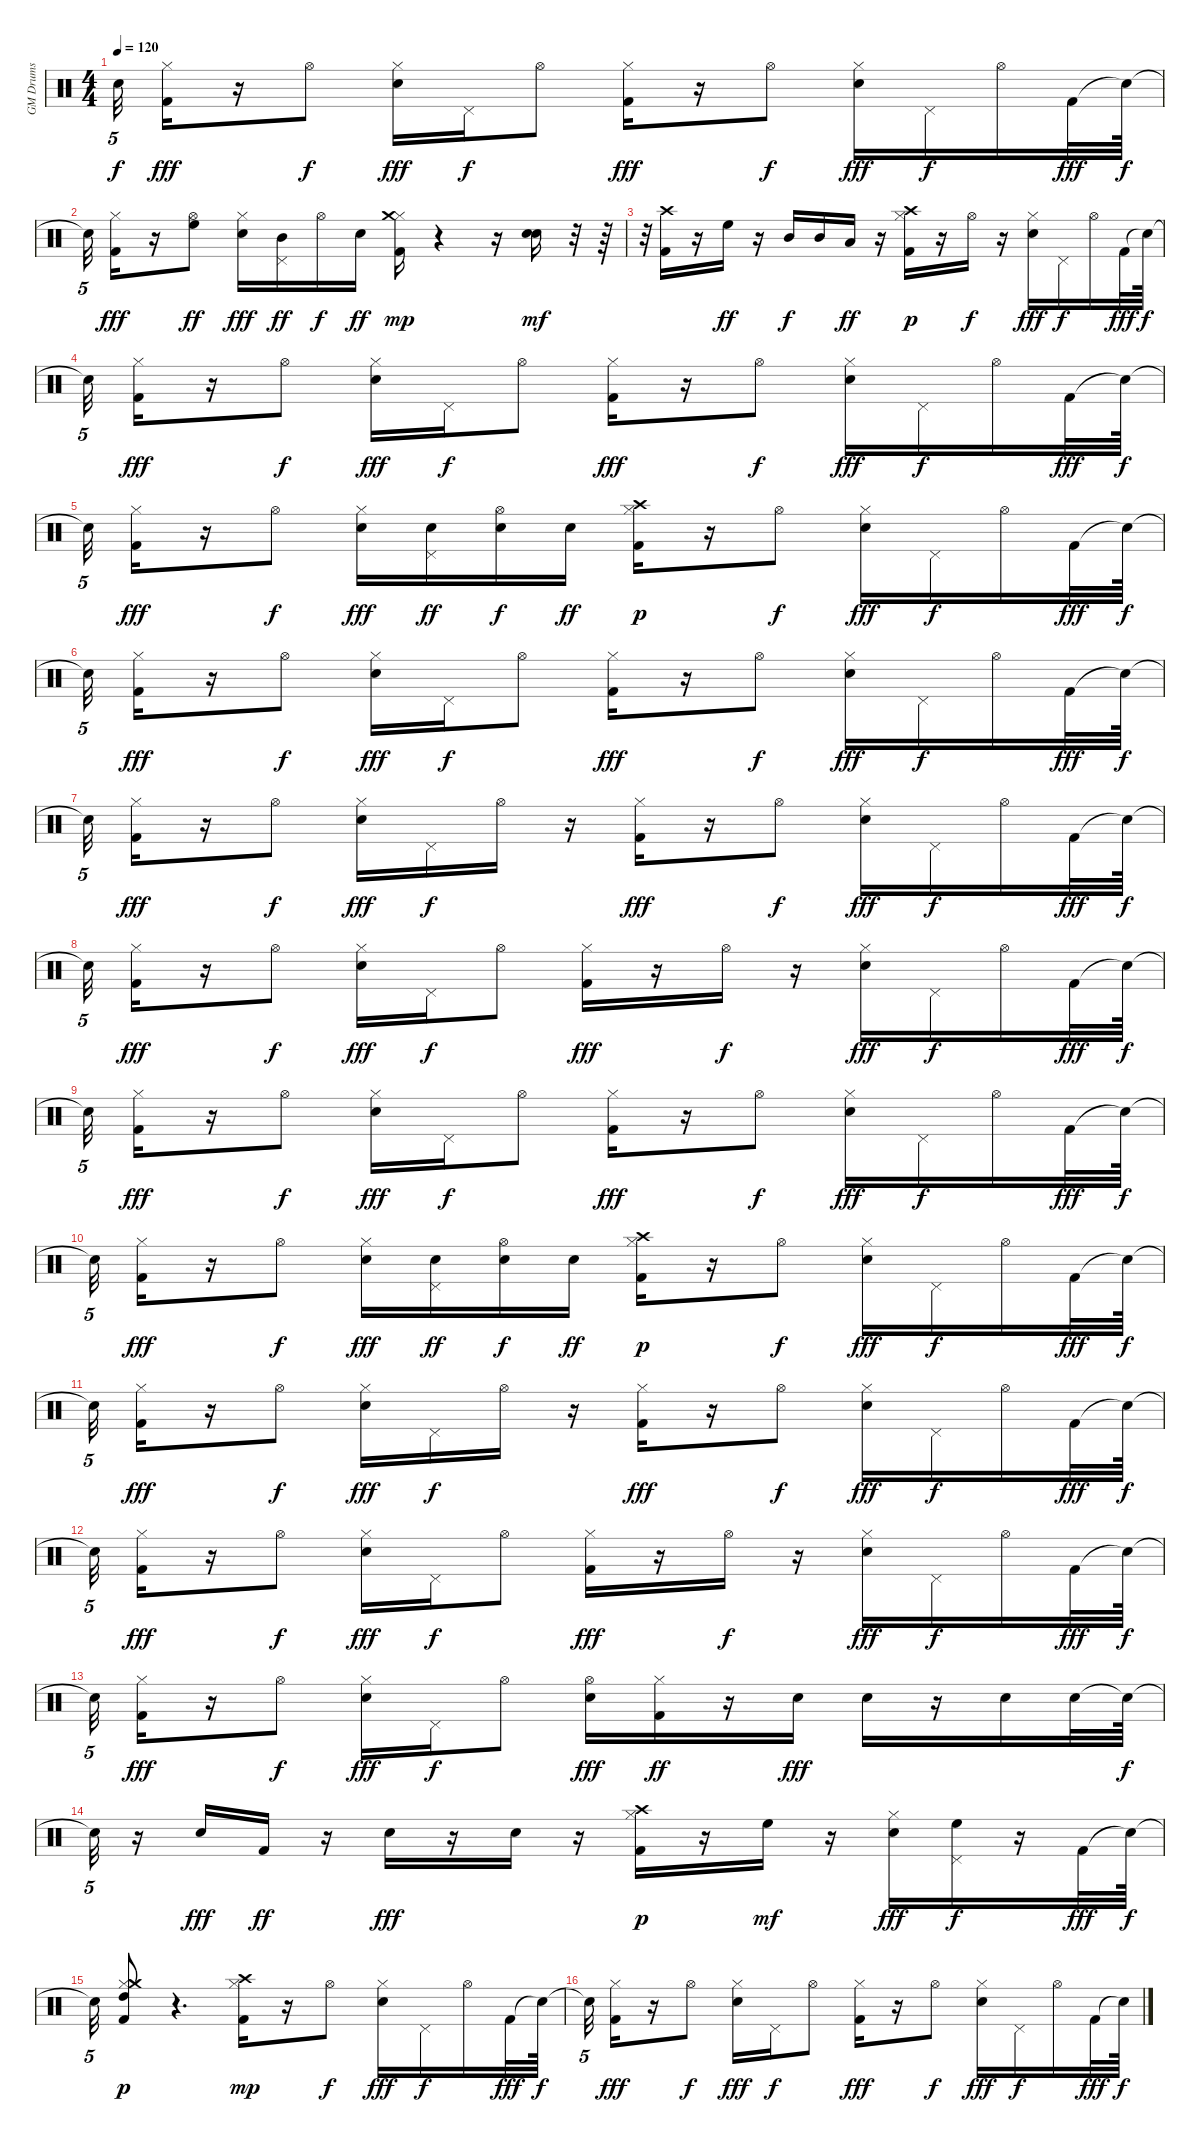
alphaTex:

\track ("GM Drums" "GM Drums") {instrument percussion}
\staff {score}
\articulation defaults
\ts (4 4)
\tempo 120
\clef neutral
\ks c "Snare (hit)"{t}.32{tu (5 4) dy f}
("Kick (hit) 2" "Hi-Hat (closed)").16{dy fff} r.16 "Hi-Hat (open)".8{dy f} ("Electric Snare (hit)" "Hi-Hat (closed)").16{dy fff} "Pedal Hi-Hat (hit)".16{dy f} "Hi-Hat (open)".8 ("Kick (hit) 2" "Hi-Hat (closed)").16{dy fff} r.16 "Hi-Hat (open)".8{dy f} ("Electric Snare (hit)" "Hi-Hat (closed)").16{dy fff} "Pedal Hi-Hat (hit)".16{dy f} "Hi-Hat (open)".16 "Kick (hit) 2".32{dy fff} "Snare (hit)"{t}.64{dy f} |
"Snare (hit)"{t}.32{tu (5 4)} ("Kick (hit) 2" "Hi-Hat (closed)").16{dy fff} r.16 ("Hi-Hat (open)" "High Floor Tom (hit)").8{dy ff} ("Electric Snare (hit)" "Hi-Hat (closed)").16{dy fff} ("Pedal Hi-Hat (hit)" "Mid Tom (hit)").16{dy ff} "Hi-Hat (open)".16{dy f} "Electric Snare (hit)".16{dy ff} ("Kick (hit) 2" "Hi-Hat (closed)" "Crash medium (hit)").16{dy mp} r.4 r.16 ("Electric Snare (hit)" "Electric Snare (hit)").16{dy mf} r.32 r.64 |
r.32{tu (5 4)} ("Kick (hit) 2" "Crash high (hit)").16 r.16 "High Floor Tom (hit)".16{dy ff} r.16 "Mid Tom (hit)".16{dy f} "Mid Tom (hit)".16 "Low Tom (hit)".16{dy ff} r.16 ("Kick (hit) 2" "Hi-Hat (closed)" "Crash high (hit)").16{dy p} r.16 "Hi-Hat (open)".16{dy f} r.16 ("Electric Snare (hit)" "Hi-Hat (closed)").16{dy fff} "Pedal Hi-Hat (hit)".16{dy f} "Hi-Hat (open)".16 "Kick (hit) 2".32{dy fff} "Snare (hit)"{t}.64{dy f} |
"Snare (hit)"{t}.32{tu (5 4)} ("Kick (hit) 2" "Hi-Hat (closed)").16{dy fff} r.16 "Hi-Hat (open)".8{dy f} ("Electric Snare (hit)" "Hi-Hat (closed)").16{dy fff} "Pedal Hi-Hat (hit)".16{dy f} "Hi-Hat (open)".8 ("Kick (hit) 2" "Hi-Hat (closed)").16{dy fff} r.16 "Hi-Hat (open)".8{dy f} ("Electric Snare (hit)" "Hi-Hat (closed)").16{dy fff} "Pedal Hi-Hat (hit)".16{dy f} "Hi-Hat (open)".16 "Kick (hit) 2".32{dy fff} "Snare (hit)"{t}.64{dy f} |
"Snare (hit)"{t}.32{tu (5 4)} ("Kick (hit) 2" "Hi-Hat (closed)").16{dy fff} r.16 "Hi-Hat (open)".8{dy f} ("Electric Snare (hit)" "Hi-Hat (closed)").16{dy fff} ("Electric Snare (hit)" "Pedal Hi-Hat (hit)").16{dy ff} ("Electric Snare (hit)" "Hi-Hat (open)").16{dy f} "Electric Snare (hit)".16{dy ff} ("Kick (hit) 2" "Hi-Hat (closed)" "Crash high (hit)").16{dy p} r.16 "Hi-Hat (open)".8{dy f} ("Electric Snare (hit)" "Hi-Hat (closed)").16{dy fff} "Pedal Hi-Hat (hit)".16{dy f} "Hi-Hat (open)".16 "Kick (hit) 2".32{dy fff} "Snare (hit)"{t}.64{dy f} |
"Snare (hit)"{t}.32{tu (5 4)} ("Kick (hit) 2" "Hi-Hat (closed)").16{dy fff} r.16 "Hi-Hat (open)".8{dy f} ("Electric Snare (hit)" "Hi-Hat (closed)").16{dy fff} "Pedal Hi-Hat (hit)".16{dy f} "Hi-Hat (open)".8 ("Kick (hit) 2" "Hi-Hat (closed)").16{dy fff} r.16 "Hi-Hat (open)".8{dy f} ("Electric Snare (hit)" "Hi-Hat (closed)").16{dy fff} "Pedal Hi-Hat (hit)".16{dy f} "Hi-Hat (open)".16 "Kick (hit) 2".32{dy fff} "Snare (hit)"{t}.64{dy f} |
"Snare (hit)"{t}.32{tu (5 4)} ("Kick (hit) 2" "Hi-Hat (closed)").16{dy fff} r.16 "Hi-Hat (open)".8{dy f} ("Electric Snare (hit)" "Hi-Hat (closed)").16{dy fff} "Pedal Hi-Hat (hit)".16{dy f} "Hi-Hat (open)".16 r.16 ("Kick (hit) 2" "Hi-Hat (closed)").16{dy fff} r.16 "Hi-Hat (open)".8{dy f} ("Electric Snare (hit)" "Hi-Hat (closed)").16{dy fff} "Pedal Hi-Hat (hit)".16{dy f} "Hi-Hat (open)".16 "Kick (hit) 2".32{dy fff} "Snare (hit)"{t}.64{dy f} |
"Snare (hit)"{t}.32{tu (5 4)} ("Kick (hit) 2" "Hi-Hat (closed)").16{dy fff} r.16 "Hi-Hat (open)".8{dy f} ("Electric Snare (hit)" "Hi-Hat (closed)").16{dy fff} "Pedal Hi-Hat (hit)".16{dy f} "Hi-Hat (open)".8 ("Kick (hit) 2" "Hi-Hat (closed)").16{dy fff} r.16 "Hi-Hat (open)".16{dy f} r.16 ("Electric Snare (hit)" "Hi-Hat (closed)").16{dy fff} "Pedal Hi-Hat (hit)".16{dy f} "Hi-Hat (open)".16 "Kick (hit) 2".32{dy fff} "Snare (hit)"{t}.64{dy f} |
"Snare (hit)"{t}.32{tu (5 4)} ("Kick (hit) 2" "Hi-Hat (closed)").16{dy fff} r.16 "Hi-Hat (open)".8{dy f} ("Electric Snare (hit)" "Hi-Hat (closed)").16{dy fff} "Pedal Hi-Hat (hit)".16{dy f} "Hi-Hat (open)".8 ("Kick (hit) 2" "Hi-Hat (closed)").16{dy fff} r.16 "Hi-Hat (open)".8{dy f} ("Electric Snare (hit)" "Hi-Hat (closed)").16{dy fff} "Pedal Hi-Hat (hit)".16{dy f} "Hi-Hat (open)".16 "Kick (hit) 2".32{dy fff} "Snare (hit)"{t}.64{dy f} |
"Snare (hit)"{t}.32{tu (5 4)} ("Kick (hit) 2" "Hi-Hat (closed)").16{dy fff} r.16 "Hi-Hat (open)".8{dy f} ("Electric Snare (hit)" "Hi-Hat (closed)").16{dy fff} ("Electric Snare (hit)" "Pedal Hi-Hat (hit)").16{dy ff} ("Electric Snare (hit)" "Hi-Hat (open)").16{dy f} "Electric Snare (hit)".16{dy ff} ("Kick (hit) 2" "Hi-Hat (closed)" "Crash high (hit)").16{dy p} r.16 "Hi-Hat (open)".8{dy f} ("Electric Snare (hit)" "Hi-Hat (closed)").16{dy fff} "Pedal Hi-Hat (hit)".16{dy f} "Hi-Hat (open)".16 "Kick (hit) 2".32{dy fff} "Snare (hit)"{t}.64{dy f} |
"Snare (hit)"{t}.32{tu (5 4)} ("Kick (hit) 2" "Hi-Hat (closed)").16{dy fff} r.16 "Hi-Hat (open)".8{dy f} ("Electric Snare (hit)" "Hi-Hat (closed)").16{dy fff} "Pedal Hi-Hat (hit)".16{dy f} "Hi-Hat (open)".16 r.16 ("Kick (hit) 2" "Hi-Hat (closed)").16{dy fff} r.16 "Hi-Hat (open)".8{dy f} ("Electric Snare (hit)" "Hi-Hat (closed)").16{dy fff} "Pedal Hi-Hat (hit)".16{dy f} "Hi-Hat (open)".16 "Kick (hit) 2".32{dy fff} "Snare (hit)"{t}.64{dy f} |
"Snare (hit)"{t}.32{tu (5 4)} ("Kick (hit) 2" "Hi-Hat (closed)").16{dy fff} r.16 "Hi-Hat (open)".8{dy f} ("Electric Snare (hit)" "Hi-Hat (closed)").16{dy fff} "Pedal Hi-Hat (hit)".16{dy f} "Hi-Hat (open)".8 ("Kick (hit) 2" "Hi-Hat (closed)").16{dy fff} r.16 "Hi-Hat (open)".16{dy f} r.16 ("Electric Snare (hit)" "Hi-Hat (closed)").16{dy fff} "Pedal Hi-Hat (hit)".16{dy f} "Hi-Hat (open)".16 "Kick (hit) 2".32{dy fff} "Snare (hit)"{t}.64{dy f} |
"Snare (hit)"{t}.32{tu (5 4)} ("Kick (hit) 2" "Hi-Hat (closed)").16{dy fff} r.16 "Hi-Hat (open)".8{dy f} ("Electric Snare (hit)" "Hi-Hat (closed)").16{dy fff} "Pedal Hi-Hat (hit)".16{dy f} "Hi-Hat (open)".8 ("Electric Snare (hit)" "Hi-Hat (open)").16{dy fff} ("Kick (hit) 2" "Hi-Hat (closed)").16{dy ff} r.16 "Electric Snare (hit)".16{dy fff} "Electric Snare (hit)".16 r.16 "Electric Snare (hit)".16 "Electric Snare (hit)".32 "Snare (hit)"{t}.64{dy f} |
"Snare (hit)"{t}.32{tu (5 4)} r.16 "Electric Snare (hit)".16{dy fff} "Kick (hit) 2".16{dy ff} r.16 "Electric Snare (hit)".16{dy fff} r.16 "Electric Snare (hit)".16 r.16 ("Kick (hit) 2" "Hi-Hat (closed)" "Crash high (hit)").16{dy p} r.16 "High Floor Tom (hit)".16{dy mf} r.16 ("Electric Snare (hit)" "Hi-Hat (closed)").16{dy fff} ("Pedal Hi-Hat (hit)" "High Floor Tom (hit)").16{dy f} r.16 "Kick (hit) 2".32{dy fff} "Snare (hit)"{t}.64{dy f} |
"Snare (hit)"{t}.32{tu (5 4)} ("Kick (hit) 2" "Hi-Hat (closed)" "High Tom (hit)" "Crash medium (hit)").8{dy p} r.4{d} ("Kick (hit) 2" "Hi-Hat (closed)" "Crash high (hit)").16{dy mp} r.16 "Hi-Hat (open)".8{dy f} ("Electric Snare (hit)" "Hi-Hat (closed)").16{dy fff} "Pedal Hi-Hat (hit)".16{dy f} "Hi-Hat (open)".16 "Kick (hit) 2".32{dy fff} "Snare (hit)"{t}.64{dy f} |
"Snare (hit)"{t}.32{tu (5 4)} ("Kick (hit) 2" "Hi-Hat (closed)").16{dy fff} r.16 "Hi-Hat (open)".8{dy f} ("Electric Snare (hit)" "Hi-Hat (closed)").16{dy fff} "Pedal Hi-Hat (hit)".16{dy f} "Hi-Hat (open)".8 ("Kick (hit) 2" "Hi-Hat (closed)").16{dy fff} r.16 "Hi-Hat (open)".8{dy f} ("Electric Snare (hit)" "Hi-Hat (closed)").16{dy fff} "Pedal Hi-Hat (hit)".16{dy f} "Hi-Hat (open)".16 "Kick (hit) 2".32{dy fff} "Snare (hit)"{t}.64{dy f}
